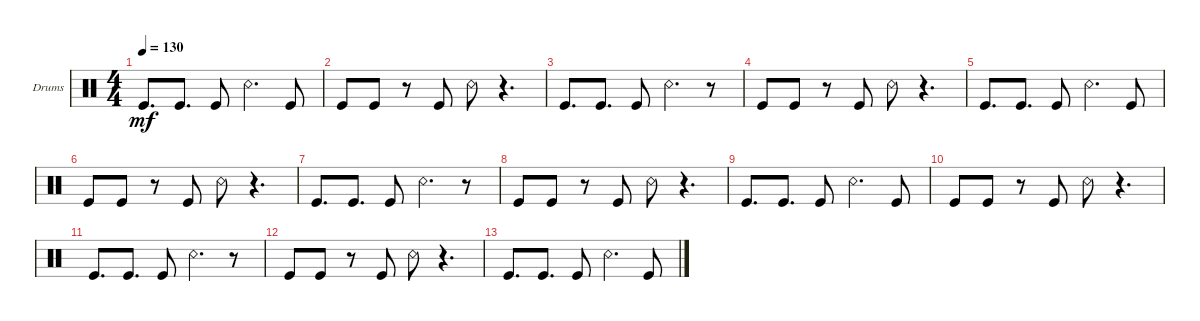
\defaultSystemsLayout 4
\bracketExtendMode groupsimilarinstruments
\firstSystemTrackNameOrientation horizontal
\otherSystemsTrackNameOrientation horizontal
\track ("Drumkit" "Drums") {instrument percussion}
\staff {score}
\articulation defaults
\ts (4 4)
\tempo 130
\clef neutral
\ks c "Kick (hit)".8{d dy mf} "Kick (hit)".8{d} "Kick (hit)".8 "Snare (rim shot)".4{d} "Kick (hit)".8
|
"Kick (hit)".8 "Kick (hit)".8 r.8 "Kick (hit)".8 "Snare (rim shot)".8 r.4{d} |
"Kick (hit)".8{d} "Kick (hit)".8{d} "Kick (hit)".8 "Snare (rim shot)".4{d} r.8 |
"Kick (hit)".8 "Kick (hit)".8 r.8 "Kick (hit)".8 "Snare (rim shot)".8 r.4{d} |
"Kick (hit)".8{d} "Kick (hit)".8{d} "Kick (hit)".8 "Snare (rim shot)".4{d} "Kick (hit)".8 |
"Kick (hit)".8 "Kick (hit)".8 r.8 "Kick (hit)".8 "Snare (rim shot)".8 r.4{d} |
"Kick (hit)".8{d} "Kick (hit)".8{d} "Kick (hit)".8 "Snare (rim shot)".4{d} r.8 |
"Kick (hit)".8 "Kick (hit)".8 r.8 "Kick (hit)".8 "Snare (rim shot)".8 r.4{d} |
"Kick (hit)".8{d} "Kick (hit)".8{d} "Kick (hit)".8 "Snare (rim shot)".4{d} "Kick (hit)".8 |
"Kick (hit)".8 "Kick (hit)".8 r.8 "Kick (hit)".8 "Snare (rim shot)".8 r.4{d} |
"Kick (hit)".8{d} "Kick (hit)".8{d} "Kick (hit)".8 "Snare (rim shot)".4{d} r.8 |
"Kick (hit)".8 "Kick (hit)".8 r.8 "Kick (hit)".8 "Snare (rim shot)".8 r.4{d} |
"Kick (hit)".8{d} "Kick (hit)".8{d} "Kick (hit)".8 "Snare (rim shot)".4{d} "Kick (hit)".8
